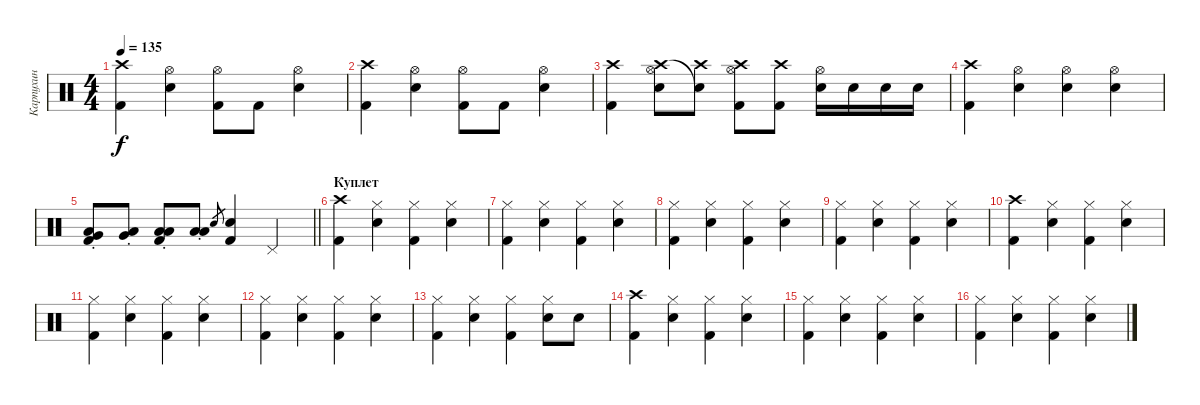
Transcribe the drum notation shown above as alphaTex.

\track ("Карпухин" "Карпухин") {instrument percussion}
\staff {score}
\articulation defaults
\ts (4 4)
\tempo 135
\clef neutral
\ks c
("Crash high (hit)" "Kick (hit) 2").4{dy f} ("Snare (hit) 2" "Hi-Hat (open)").4 ("Kick (hit) 2" "Hi-Hat (open)").8 "Kick (hit) 2".8 ("Snare (hit) 2" "Hi-Hat (open)").4 |
("Crash high (hit)" "Kick (hit) 2").4 ("Snare (hit) 2" "Hi-Hat (open)").4 ("Kick (hit) 2" "Hi-Hat (open)").8 "Kick (hit) 2".8 ("Snare (hit) 2" "Hi-Hat (open)").4 |
("Crash high (hit)" "Kick (hit) 2").4 ("Hi-Hat (open)" "Crash high (hit)" "Snare (hit) 2").8 ("Crash high (hit)" "Snare (hit) 2"{t}).8 ("Hi-Hat (open)" "Crash high (hit)" "Kick (hit) 2").8 ("Crash high (hit)" "Kick (hit) 2").8 ("Hi-Hat (open)" "Snare (hit) 2").16 "Snare (hit) 2".16 "Snare (hit) 2".16 "Snare (hit) 2".16 |
("Crash high (hit)" "Kick (hit) 2").4 ("Hi-Hat (open)" "Snare (hit) 2").4 ("Hi-Hat (open)" "Snare (hit) 2").4 ("Hi-Hat (open)" "Snare (hit) 2").4 |
\barLineRight lightlight
("Low Floor Tom (hit)"{st} "Very Low Tom (hit)"{st} "Kick (hit) 2"{st}).8 ("Low Floor Tom (hit)"{st} "Very Low Tom (hit)"{st}).8 ("Low Floor Tom (hit)"{st} "Low Tom (hit)"{st} "Kick (hit) 2"{st}).8 ("Low Floor Tom (hit)"{st} "Low Tom (hit)"{st}).8 "Snare (hit) 2".8{gr} ("Snare (hit) 2" "Kick (hit) 2").4 "Pedal Hi-Hat (hit)".4 |
\section ("" "Куплет")
("Crash high (hit)" "Kick (hit) 2").4 ("Snare (hit) 2" "Hi-Hat (closed)").4 ("Kick (hit) 2" "Hi-Hat (closed)").4 ("Snare (hit) 2" "Hi-Hat (closed)").4 |
("Kick (hit) 2" "Hi-Hat (closed)").4 ("Snare (hit) 2" "Hi-Hat (closed)").4 ("Kick (hit) 2" "Hi-Hat (closed)").4 ("Snare (hit) 2" "Hi-Hat (closed)").4 |
("Kick (hit) 2" "Hi-Hat (closed)").4 ("Snare (hit) 2" "Hi-Hat (closed)").4 ("Kick (hit) 2" "Hi-Hat (closed)").4 ("Snare (hit) 2" "Hi-Hat (closed)").4 |
("Kick (hit) 2" "Hi-Hat (closed)").4 ("Snare (hit) 2" "Hi-Hat (closed)").4 ("Kick (hit) 2" "Hi-Hat (closed)").4 ("Snare (hit) 2" "Hi-Hat (closed)").4 |
("Crash high (hit)" "Kick (hit) 2").4 ("Snare (hit) 2" "Hi-Hat (closed)").4 ("Kick (hit) 2" "Hi-Hat (closed)").4 ("Snare (hit) 2" "Hi-Hat (closed)").4 |
("Kick (hit) 2" "Hi-Hat (closed)").4 ("Snare (hit) 2" "Hi-Hat (closed)").4 ("Kick (hit) 2" "Hi-Hat (closed)").4 ("Snare (hit) 2" "Hi-Hat (closed)").4 |
("Kick (hit) 2" "Hi-Hat (closed)").4 ("Snare (hit) 2" "Hi-Hat (closed)").4 ("Kick (hit) 2" "Hi-Hat (closed)").4 ("Snare (hit) 2" "Hi-Hat (closed)").4 |
("Kick (hit) 2" "Hi-Hat (closed)").4 ("Snare (hit) 2" "Hi-Hat (closed)").4 ("Kick (hit) 2" "Hi-Hat (closed)").4 ("Snare (hit) 2" "Hi-Hat (closed)").8 "Snare (hit) 2".8 |
("Crash high (hit)" "Kick (hit) 2").4 ("Snare (hit) 2" "Hi-Hat (closed)").4 ("Kick (hit) 2" "Hi-Hat (closed)").4 ("Snare (hit) 2" "Hi-Hat (closed)").4 |
("Kick (hit) 2" "Hi-Hat (closed)").4 ("Snare (hit) 2" "Hi-Hat (closed)").4 ("Kick (hit) 2" "Hi-Hat (closed)").4 ("Snare (hit) 2" "Hi-Hat (closed)").4 |
("Kick (hit) 2" "Hi-Hat (closed)").4 ("Snare (hit) 2" "Hi-Hat (closed)").4 ("Kick (hit) 2" "Hi-Hat (closed)").4 ("Snare (hit) 2" "Hi-Hat (closed)").4
